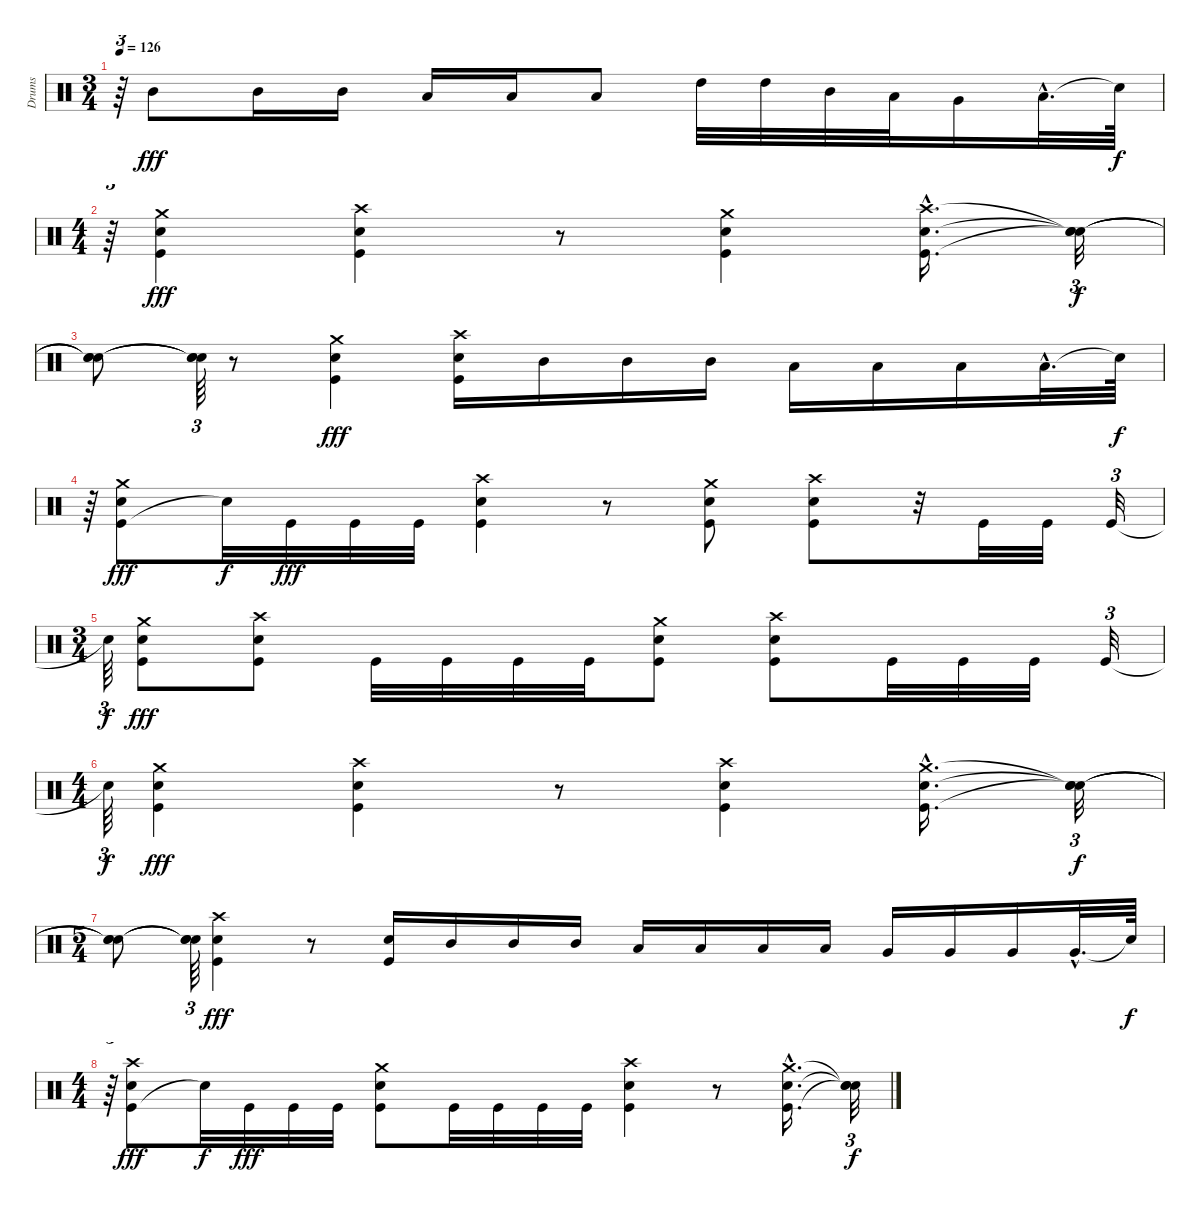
\track ("Drums" "Drums") {instrument percussion}
\staff {score}
\articulation defaults
\ts (3 4)
\tempo 126
\clef neutral
\ks c
r.64{tu (3 2) dy f} "Mid Tom (hit)".8{dy fff} "Mid Tom (hit)".16 "Mid Tom (hit)".16 "Low Tom (hit)".16 "Low Tom (hit)".16 "Low Tom (hit)".8 "High Tom (hit)".32 "High Tom (hit)".32 "Mid Tom (hit)".32 "Low Tom (hit)".32 "Very Low Tom (hit)".16 "Low Floor Tom (hit)"{hac}.32{d} "Snare (hit)"{t}.64{dy f} |
\ts (4 4)
r.64{tu (3 2)} ("Kick (hit)" "Snare (hit) 2" "Crash medium (hit)").4{dy fff} ("Kick (hit)" "Snare (hit) 2" "Crash high (hit)").4 r.8 ("Kick (hit)" "Snare (hit) 2" "Crash medium (hit)").4 ("Kick (hit)"{hac} "Snare (hit) 2"{hac} "Crash high (hit)"{hac}).16{d} ("Snare (hit)"{t} "Snare (hit)"{t} "Snare (hit)"{t}).32{tu (3 2) dy f} |
("Snare (hit)"{t} "Snare (hit)"{t} "Snare (hit)"{t}).8 ("Snare (hit)"{t} "Snare (hit)"{t} "Snare (hit)"{t}).64{tu (3 2)} r.8 ("Kick (hit)" "Snare (hit) 2" "Crash medium (hit)").4{dy fff} ("Kick (hit)" "Snare (hit) 2" "Crash high (hit)").16 "Mid Tom (hit)".16 "Mid Tom (hit)".16 "Mid Tom (hit)".16 "Low Tom (hit)".16 "Low Tom (hit)".16 "Low Tom (hit)".16 "Low Tom (hit)"{hac}.32{d} "Snare (hit)"{t}.64{dy f} |
r.64{tu (3 2)} ("Kick (hit)" "Snare (hit) 2" "Crash medium (hit)").8{dy fff} "Snare (hit)"{t}.32{dy f} "Kick (hit)".32{dy fff} "Kick (hit)".32 "Kick (hit)".32 ("Kick (hit)" "Snare (hit) 2" "Crash high (hit)").4 r.8 ("Kick (hit)" "Snare (hit) 2" "Crash medium (hit)").8 ("Kick (hit)" "Snare (hit) 2" "Crash high (hit)").8 r.32 "Kick (hit)".32 "Kick (hit)".32 "Kick (hit)".32{tu (3 2)} |
\ts (3 4)
"Snare (hit)"{t}.64{tu (3 2) dy f} ("Kick (hit)" "Snare (hit) 2" "Crash medium (hit)").8{dy fff} ("Kick (hit)" "Snare (hit) 2" "Crash high (hit)").8 "Kick (hit)".32 "Kick (hit)".32 "Kick (hit)".32 "Kick (hit)".32 ("Kick (hit)" "Snare (hit) 2" "Crash medium (hit)").8 ("Kick (hit)" "Snare (hit) 2" "Crash high (hit)").8 "Kick (hit)".32 "Kick (hit)".32 "Kick (hit)".32 "Kick (hit)".32{tu (3 2)} |
\ts (4 4)
"Snare (hit)"{t}.64{tu (3 2) dy f} ("Kick (hit)" "Snare (hit) 2" "Crash medium (hit)").4{dy fff} ("Kick (hit)" "Snare (hit) 2" "Crash high (hit)").4 r.8 ("Kick (hit)" "Snare (hit) 2" "Crash high (hit)").4 ("Kick (hit)"{hac} "Snare (hit) 2"{hac} "Crash medium (hit)"{hac}).16{d} ("Snare (hit)"{t} "Snare (hit)"{t} "Snare (hit)"{t}).32{tu (3 2) dy f} |
\ts (5 4)
("Snare (hit)"{t} "Snare (hit)"{t} "Snare (hit)"{t}).8 ("Snare (hit)"{t} "Snare (hit)"{t} "Snare (hit)"{t}).64{tu (3 2)} ("Kick (hit)" "Snare (hit) 2" "Crash high (hit)").4{dy fff} r.8 ("Kick (hit)" "Snare (hit) 2").16 "Mid Tom (hit)".16 "Mid Tom (hit)".16 "Mid Tom (hit)".16 "Low Tom (hit)".16 "Low Tom (hit)".16 "Low Tom (hit)".16 "Low Tom (hit)".16 "Very Low Tom (hit)".16 "Very Low Tom (hit)".16 "Very Low Tom (hit)".16 "Very Low Tom (hit)"{hac}.32{d} "Snare (hit)"{t}.64{dy f} |
\ts (4 4)
r.64{tu (3 2)} ("Kick (hit)" "Snare (hit) 2" "Crash high (hit)").8{dy fff} "Snare (hit)"{t}.32{dy f} "Kick (hit)".32{dy fff} "Kick (hit)".32 "Kick (hit)".32 ("Kick (hit)" "Snare (hit) 2" "Crash medium (hit)").8 "Kick (hit)".32 "Kick (hit)".32 "Kick (hit)".32 "Kick (hit)".32 ("Kick (hit)" "Snare (hit) 2" "Crash high (hit)").4 r.8 ("Kick (hit)"{hac} "Snare (hit) 2"{hac} "Crash medium (hit)"{hac}).16{d} ("Snare (hit)"{t} "Snare (hit)"{t} "Snare (hit)"{t}).32{tu (3 2) dy f}
